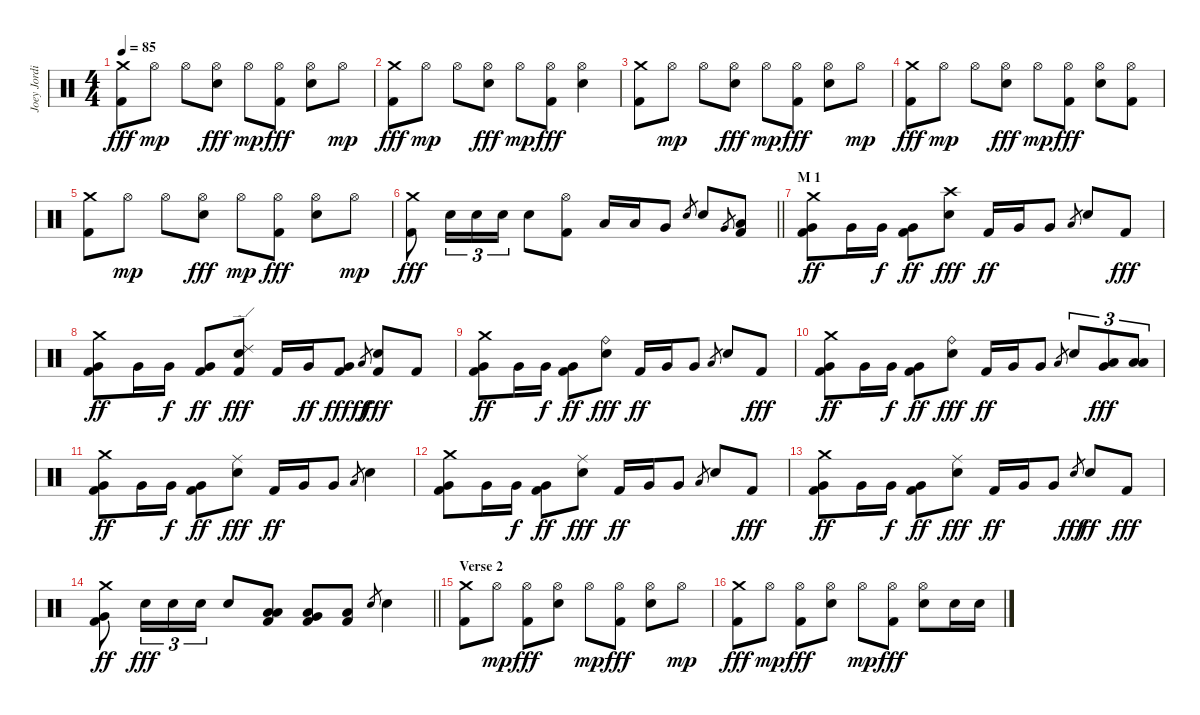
\track ("Joey Jordison" "Joey Jordi") {instrument percussion}
\staff {score}
\articulation defaults
\ts (4 4)
\tempo 85
\clef neutral
\ks c
("Crash medium (hit)" "Kick (hit) 2").8{dy fff} "Hi-Hat (open)".8{dy mp} "Hi-Hat (open)".8 ("Hi-Hat (open)" "Electric Snare (hit)").8{dy fff} "Hi-Hat (open)".8{dy mp} ("Hi-Hat (open)" "Kick (hit) 2").8{dy fff} ("Hi-Hat (open)" "Electric Snare (hit)").8 "Hi-Hat (open)".8{dy mp} |
("Crash medium (hit)" "Kick (hit) 2").8{dy fff} "Hi-Hat (open)".8{dy mp} "Hi-Hat (open)".8 ("Hi-Hat (open)" "Electric Snare (hit)").8{dy fff} "Hi-Hat (open)".8{dy mp} ("Hi-Hat (open)" "Kick (hit) 2").8{dy fff} ("Hi-Hat (open)" "Electric Snare (hit)").4 |
("Crash medium (hit)" "Kick (hit) 2").8 "Hi-Hat (open)".8{dy mp} "Hi-Hat (open)".8 ("Hi-Hat (open)" "Electric Snare (hit)").8{dy fff} "Hi-Hat (open)".8{dy mp} ("Hi-Hat (open)" "Kick (hit) 2").8{dy fff} ("Hi-Hat (open)" "Electric Snare (hit)").8 "Hi-Hat (open)".8{dy mp} |
("Crash medium (hit)" "Kick (hit) 2").8{dy fff} "Hi-Hat (open)".8{dy mp} "Hi-Hat (open)".8 ("Hi-Hat (open)" "Electric Snare (hit)").8{dy fff} "Hi-Hat (open)".8{dy mp} ("Hi-Hat (open)" "Kick (hit) 2").8{dy fff} ("Hi-Hat (open)" "Electric Snare (hit)").8 ("Hi-Hat (open)" "Kick (hit) 2").8 |
("Crash medium (hit)" "Kick (hit) 2").8 "Hi-Hat (open)".8{dy mp} "Hi-Hat (open)".8 ("Hi-Hat (open)" "Electric Snare (hit)").8{dy fff} "Hi-Hat (open)".8{dy mp} ("Hi-Hat (open)" "Kick (hit) 2").8{dy fff} ("Hi-Hat (open)" "Electric Snare (hit)").8 "Hi-Hat (open)".8{dy mp} |
\barLineRight lightlight
("Crash medium (hit)" "Kick (hit) 2").8{dy fff} "Electric Snare (hit)".16{tu (3 2)} "Electric Snare (hit)".16{tu (3 2)} "Electric Snare (hit)".16{tu (3 2)} "Electric Snare (hit)".8 ("Hi-Hat (open)" "Kick (hit) 2").8 "Low Tom (hit)".16 "Low Tom (hit)".16 "Very Low Tom (hit)".8 "Electric Snare (hit)".8{gr} "Electric Snare (hit)".8 "Very Low Tom (hit)".8{gr} ("Low Floor Tom (hit)" "Kick (hit) 2").8 |
\section ("" "M 1")
("Crash medium (hit)" "Very Low Tom (hit)" "Kick (hit) 2").8{dy ff} "Very Low Tom (hit)".16 "Very Low Tom (hit)".16{dy f} ("Very Low Tom (hit)" "Kick (hit) 2").8{dy ff} ("Crash high (hit)" "Electric Snare (hit)").8{dy fff} "Kick (hit) 2".16{dy ff} "Very Low Tom (hit)".16 "Very Low Tom (hit)".8 "Low Tom (hit)".8{gr} "Electric Snare (hit)".8 "Kick (hit) 2".8{dy fff} |
("Crash medium (hit)" "Very Low Tom (hit)" "Kick (hit) 2").8{dy ff} "Very Low Tom (hit)".16 "Very Low Tom (hit)".16{dy f} ("Very Low Tom (hit)" "Kick (hit) 2").8{dy ff} ("Ride (edge) 2" "Electric Snare (hit)" "Kick (hit) 2").8{dy fff} "Kick (hit) 2".16 "Very Low Tom (hit)".16{dy ff} ("Very Low Tom (hit)" "Kick (hit) 2").8{dy fff} "Low Tom (hit)".8{gr dy ff} ("Electric Snare (hit)" "Kick (hit) 2").8{dy fff} "Kick (hit) 2".8 |
("Crash medium (hit)" "Very Low Tom (hit)" "Kick (hit) 2").8{dy ff} "Very Low Tom (hit)".16 "Very Low Tom (hit)".16{dy f} ("Very Low Tom (hit)" "Kick (hit) 2").8{dy ff} ("Ride (bell)" "Electric Snare (hit)").8{dy fff} "Kick (hit) 2".16{dy ff} "Very Low Tom (hit)".16 "Very Low Tom (hit)".8 "Low Tom (hit)".8{gr} "Electric Snare (hit)".8 "Kick (hit) 2".8{dy fff} |
("Crash medium (hit)" "Very Low Tom (hit)" "Kick (hit) 2").8{dy ff} "Very Low Tom (hit)".16 "Very Low Tom (hit)".16{dy f} ("Very Low Tom (hit)" "Kick (hit) 2").8{dy ff} ("Ride (bell)" "Electric Snare (hit)").8{dy fff} "Kick (hit) 2".16{dy ff} "Very Low Tom (hit)".16 "Very Low Tom (hit)".8 "Low Tom (hit)".8{gr} "Electric Snare (hit)".8{tu (3 2)} ("Very Low Tom (hit)" "Low Floor Tom (hit)").8{tu (3 2) dy fff} ("Low Floor Tom (hit)" "Low Floor Tom (hit)").8{tu (3 2)} |
("Crash medium (hit)" "Very Low Tom (hit)" "Kick (hit) 2").8{dy ff} "Very Low Tom (hit)".16 "Very Low Tom (hit)".16{dy f} ("Very Low Tom (hit)" "Kick (hit) 2").8{dy ff} ("Ride (middle)" "Electric Snare (hit)").8{dy fff} "Kick (hit) 2".16{dy ff} "Very Low Tom (hit)".16 "Very Low Tom (hit)".8 "Low Tom (hit)".8{gr} "Electric Snare (hit)".4 |
("Crash medium (hit)" "Very Low Tom (hit)" "Kick (hit) 2").8 "Very Low Tom (hit)".16 "Very Low Tom (hit)".16{dy f} ("Very Low Tom (hit)" "Kick (hit) 2").8{dy ff} ("Ride (middle)" "Electric Snare (hit)").8{dy fff} "Kick (hit) 2".16{dy ff} "Very Low Tom (hit)".16 "Very Low Tom (hit)".8 "Low Tom (hit)".8{gr} "Electric Snare (hit)".8 "Kick (hit) 2".8{dy fff} |
("Crash medium (hit)" "Very Low Tom (hit)" "Kick (hit) 2").8{dy ff} "Very Low Tom (hit)".16 "Very Low Tom (hit)".16{dy f} ("Very Low Tom (hit)" "Kick (hit) 2").8{dy ff} ("Ride (middle)" "Electric Snare (hit)").8{dy fff} "Kick (hit) 2".16{dy ff} "Very Low Tom (hit)".16 "Very Low Tom (hit)".8 "Electric Snare (hit)".8{gr dy fff} "Electric Snare (hit)".8{dy ff} "Kick (hit) 2".8{dy fff} |
\barLineRight lightlight
("Crash medium (hit)" "Very Low Tom (hit)" "Kick (hit) 2").8{dy ff} "Electric Snare (hit)".16{tu (3 2) dy fff} "Electric Snare (hit)".16{tu (3 2)} "Electric Snare (hit)".16{tu (3 2)} "Electric Snare (hit)".8 ("Low Tom (hit)" "Low Floor Tom (hit)" "Kick (hit) 2").8 ("Very Low Tom (hit)" "Low Floor Tom (hit)" "Kick (hit) 2").8 ("Low Floor Tom (hit)" "Kick (hit) 2").8 "Electric Snare (hit)".8{gr} "Electric Snare (hit)".4 |
\section ("" "Verse 2")
("Crash medium (hit)" "Kick (hit) 2").8 "Hi-Hat (open)".8{dy mp} ("Hi-Hat (open)" "Kick (hit) 2").8{dy fff} ("Hi-Hat (open)" "Electric Snare (hit)").8 "Hi-Hat (open)".8{dy mp} ("Hi-Hat (open)" "Kick (hit) 2").8{dy fff} ("Hi-Hat (open)" "Electric Snare (hit)").8 "Hi-Hat (open)".8{dy mp} |
("Crash medium (hit)" "Kick (hit) 2").8{dy fff} "Hi-Hat (open)".8{dy mp} ("Hi-Hat (open)" "Kick (hit) 2").8{dy fff} ("Hi-Hat (open)" "Electric Snare (hit)").8 "Hi-Hat (open)".8{dy mp} ("Hi-Hat (open)" "Kick (hit) 2").8{dy fff} ("Hi-Hat (open)" "Electric Snare (hit)").8 "Electric Snare (hit)".16 "Electric Snare (hit)".16
